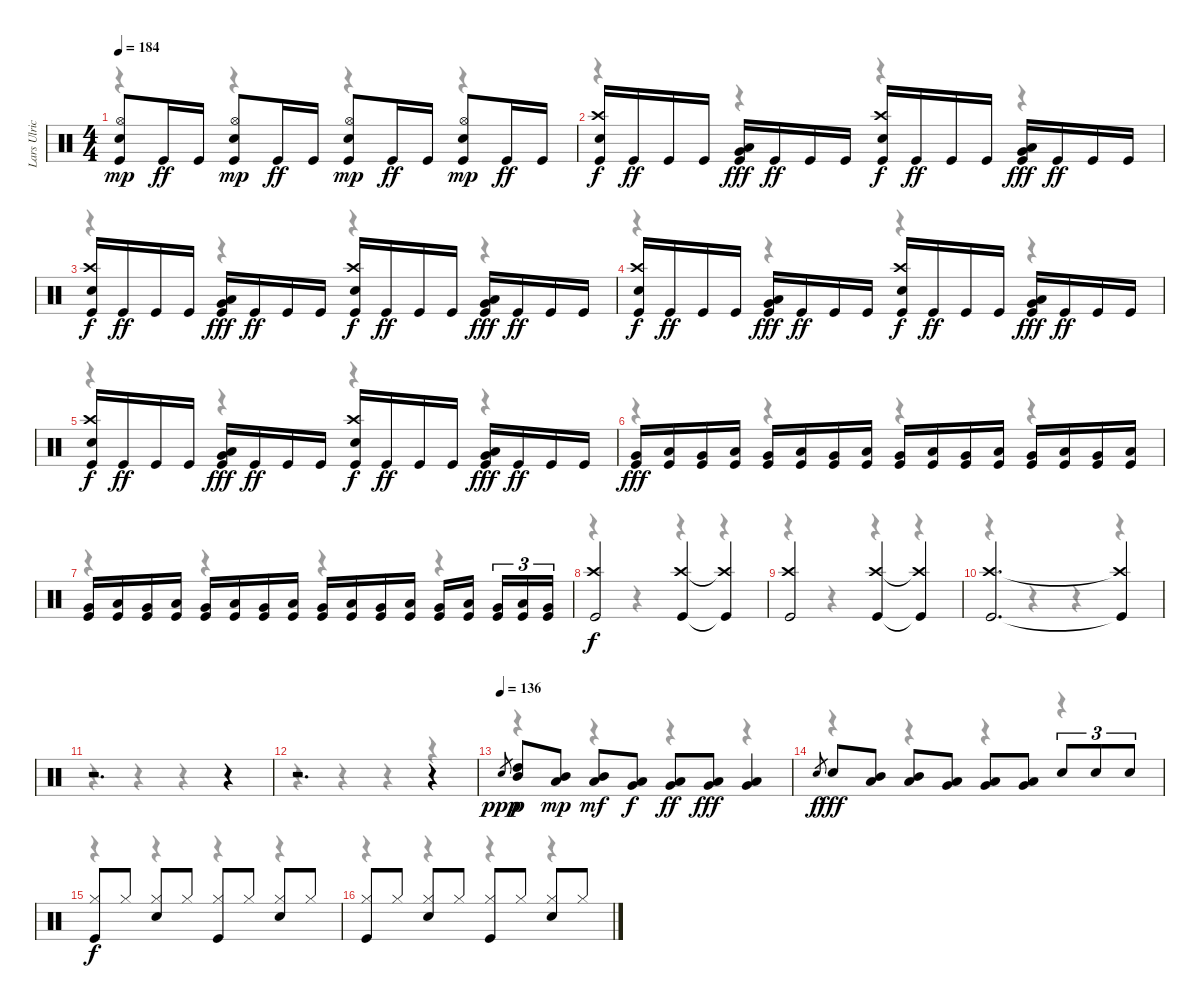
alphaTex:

\track ("Lars Ulrich" "Lars Ulric") {instrument percussion}
\staff {score}
\articulation defaults
\voice
\ts (4 4)
\tempo 184
\clef neutral
\ks c
("Hi-Hat (open)" "Snare (hit) 2" "Kick (hit)").8{dy mp} "Kick (hit)".16{dy ff} "Kick (hit)".16 ("Hi-Hat (open)" "Snare (hit) 2" "Kick (hit)").8{dy mp} "Kick (hit)".16{dy ff} "Kick (hit)".16 ("Hi-Hat (open)" "Snare (hit) 2" "Kick (hit)").8{dy mp} "Kick (hit)".16{dy ff} "Kick (hit)".16 ("Hi-Hat (open)" "Snare (hit) 2" "Kick (hit)").8{dy mp} "Kick (hit)".16{dy ff} "Kick (hit)".16 |
("Crash high (hit)" "Snare (hit) 2" "Kick (hit)").16{dy f} "Kick (hit)".16{dy ff} "Kick (hit)".16 "Kick (hit)".16 ("Low Tom (hit)" "Very Low Tom (hit)" "Kick (hit)").16{dy fff} "Kick (hit)".16{dy ff} "Kick (hit)".16 "Kick (hit)".16 ("Crash high (hit)" "Snare (hit) 2" "Kick (hit)").16{dy f} "Kick (hit)".16{dy ff} "Kick (hit)".16 "Kick (hit)".16 ("Low Tom (hit)" "Very Low Tom (hit)" "Kick (hit)").16{dy fff} "Kick (hit)".16{dy ff} "Kick (hit)".16 "Kick (hit)".16 |
("Crash high (hit)" "Snare (hit) 2" "Kick (hit)").16{dy f} "Kick (hit)".16{dy ff} "Kick (hit)".16 "Kick (hit)".16 ("Low Tom (hit)" "Very Low Tom (hit)" "Kick (hit)").16{dy fff} "Kick (hit)".16{dy ff} "Kick (hit)".16 "Kick (hit)".16 ("Crash high (hit)" "Snare (hit) 2" "Kick (hit)").16{dy f} "Kick (hit)".16{dy ff} "Kick (hit)".16 "Kick (hit)".16 ("Low Tom (hit)" "Very Low Tom (hit)" "Kick (hit)").16{dy fff} "Kick (hit)".16{dy ff} "Kick (hit)".16 "Kick (hit)".16 |
("Crash high (hit)" "Snare (hit) 2" "Kick (hit)").16{dy f} "Kick (hit)".16{dy ff} "Kick (hit)".16 "Kick (hit)".16 ("Low Tom (hit)" "Very Low Tom (hit)" "Kick (hit)").16{dy fff} "Kick (hit)".16{dy ff} "Kick (hit)".16 "Kick (hit)".16 ("Crash high (hit)" "Snare (hit) 2" "Kick (hit)").16{dy f} "Kick (hit)".16{dy ff} "Kick (hit)".16 "Kick (hit)".16 ("Low Tom (hit)" "Very Low Tom (hit)" "Kick (hit)").16{dy fff} "Kick (hit)".16{dy ff} "Kick (hit)".16 "Kick (hit)".16 |
("Crash high (hit)" "Snare (hit) 2" "Kick (hit)").16{dy f} "Kick (hit)".16{dy ff} "Kick (hit)".16 "Kick (hit)".16 ("Low Tom (hit)" "Very Low Tom (hit)" "Kick (hit)").16{dy fff} "Kick (hit)".16{dy ff} "Kick (hit)".16 "Kick (hit)".16 ("Crash high (hit)" "Snare (hit) 2" "Kick (hit)").16{dy f} "Kick (hit)".16{dy ff} "Kick (hit)".16 "Kick (hit)".16 ("Low Tom (hit)" "Very Low Tom (hit)" "Kick (hit)").16{dy fff} "Kick (hit)".16{dy ff} "Kick (hit)".16 "Kick (hit)".16 |
("Very Low Tom (hit)" "Kick (hit)").16{dy fff} ("Low Tom (hit)" "Kick (hit)").16 ("Very Low Tom (hit)" "Kick (hit)").16 ("Low Tom (hit)" "Kick (hit)").16 ("Very Low Tom (hit)" "Kick (hit)").16 ("Low Tom (hit)" "Kick (hit)").16 ("Very Low Tom (hit)" "Kick (hit)").16 ("Low Tom (hit)" "Kick (hit)").16 ("Very Low Tom (hit)" "Kick (hit)").16 ("Low Tom (hit)" "Kick (hit)").16 ("Very Low Tom (hit)" "Kick (hit)").16 ("Low Tom (hit)" "Kick (hit)").16 ("Very Low Tom (hit)" "Kick (hit)").16 ("Low Tom (hit)" "Kick (hit)").16 ("Very Low Tom (hit)" "Kick (hit)").16 ("Low Tom (hit)" "Kick (hit)").16 |
("Very Low Tom (hit)" "Kick (hit)").16 ("Low Tom (hit)" "Kick (hit)").16 ("Very Low Tom (hit)" "Kick (hit)").16 ("Low Tom (hit)" "Kick (hit)").16 ("Very Low Tom (hit)" "Kick (hit)").16 ("Low Tom (hit)" "Kick (hit)").16 ("Very Low Tom (hit)" "Kick (hit)").16 ("Low Tom (hit)" "Kick (hit)").16 ("Very Low Tom (hit)" "Kick (hit)").16 ("Low Tom (hit)" "Kick (hit)").16 ("Very Low Tom (hit)" "Kick (hit)").16 ("Low Tom (hit)" "Kick (hit)").16 ("Very Low Tom (hit)" "Kick (hit)").16 ("Low Tom (hit)" "Kick (hit)").16 ("Very Low Tom (hit)" "Kick (hit)").16{tu (3 2)} ("Low Tom (hit)" "Kick (hit)").16{tu (3 2)} ("Very Low Tom (hit)" "Kick (hit)").16{tu (3 2)} |
("Crash high (hit)" "Kick (hit)").2{dy f} ("Crash high (hit)" "Kick (hit)").4 ("Crash high (hit)"{t} "Kick (hit)"{t}).4 |
("Crash high (hit)" "Kick (hit)").2 ("Crash high (hit)" "Kick (hit)").4 ("Crash high (hit)"{t} "Kick (hit)"{t}).4 |
("Crash high (hit)" "Kick (hit)").2{d} ("Crash high (hit)"{t} "Kick (hit)"{t}).4 |
r.2{d} r.4 |
r.2{d} r.4 |
\tempo (136)
"Snare (hit)".8{gr dy ppp} ("High Tom (hit)" "Mid Tom (hit)").8{dy p} ("Mid Tom (hit)" "Low Tom (hit)").8{dy mp} ("Mid Tom (hit)" "Low Tom (hit)").8{dy mf} ("Low Tom (hit)" "Very Low Tom (hit)").8{dy f} ("Low Tom (hit)" "Very Low Tom (hit)").8{dy ff} ("Very Low Tom (hit)" "Low Floor Tom (hit)").8{dy fff} ("Very Low Tom (hit)" "Low Floor Tom (hit)").4 |
"Snare (hit)".8{gr dy f} "Snare (hit) 2".8{dy fff} ("Mid Tom (hit)" "Low Tom (hit)").8 ("Mid Tom (hit)" "Low Tom (hit)").8 ("Low Tom (hit)" "Very Low Tom (hit)").8 ("Low Tom (hit)" "Very Low Tom (hit)").8 ("Very Low Tom (hit)" "Low Floor Tom (hit)").8 "Snare (hit) 2".8{tu (3 2)} "Snare (hit) 2".8{tu (3 2)} "Snare (hit) 2".8{tu (3 2)} |
("Hi-Hat (closed)" "Kick (hit)").8{dy f} "Hi-Hat (closed)".8 ("Hi-Hat (closed)" "Snare (hit) 2").8 "Hi-Hat (closed)".8 ("Hi-Hat (closed)" "Kick (hit)").8 "Hi-Hat (closed)".8 ("Hi-Hat (closed)" "Snare (hit) 2").8 "Hi-Hat (closed)".8 |
("Hi-Hat (closed)" "Kick (hit)").8 "Hi-Hat (closed)".8 ("Hi-Hat (closed)" "Snare (hit) 2").8 "Hi-Hat (closed)".8 ("Hi-Hat (closed)" "Kick (hit)").8 "Hi-Hat (closed)".8 ("Hi-Hat (closed)" "Snare (hit) 2").8 "Hi-Hat (closed)".8
\voice
\clef neutral
\ottava regular
\simile none
\ks c
r.4{dy f} r.4 r.4 r.4 |
r.4 r.4 r.4 r.4 |
r.4 r.4 r.4 r.4 |
r.4 r.4 r.4 r.4 |
r.4 r.4 r.4 r.4 |
r.4 r.4 r.4 r.4 |
r.4 r.4 r.4 r.4 |
r.4 r.4 r.4 r.4 |
r.4 r.4 r.4 r.4 |
r.4 r.4 r.4 r.4 |
r.4 r.4 r.4 r.4 |
r.4 r.4 r.4 r.4 |
r.4 r.4 r.4 r.4 |
r.4 r.4 r.4 r.4 |
r.4 r.4 r.4 r.4 |
r.4 r.4 r.4 r.4
